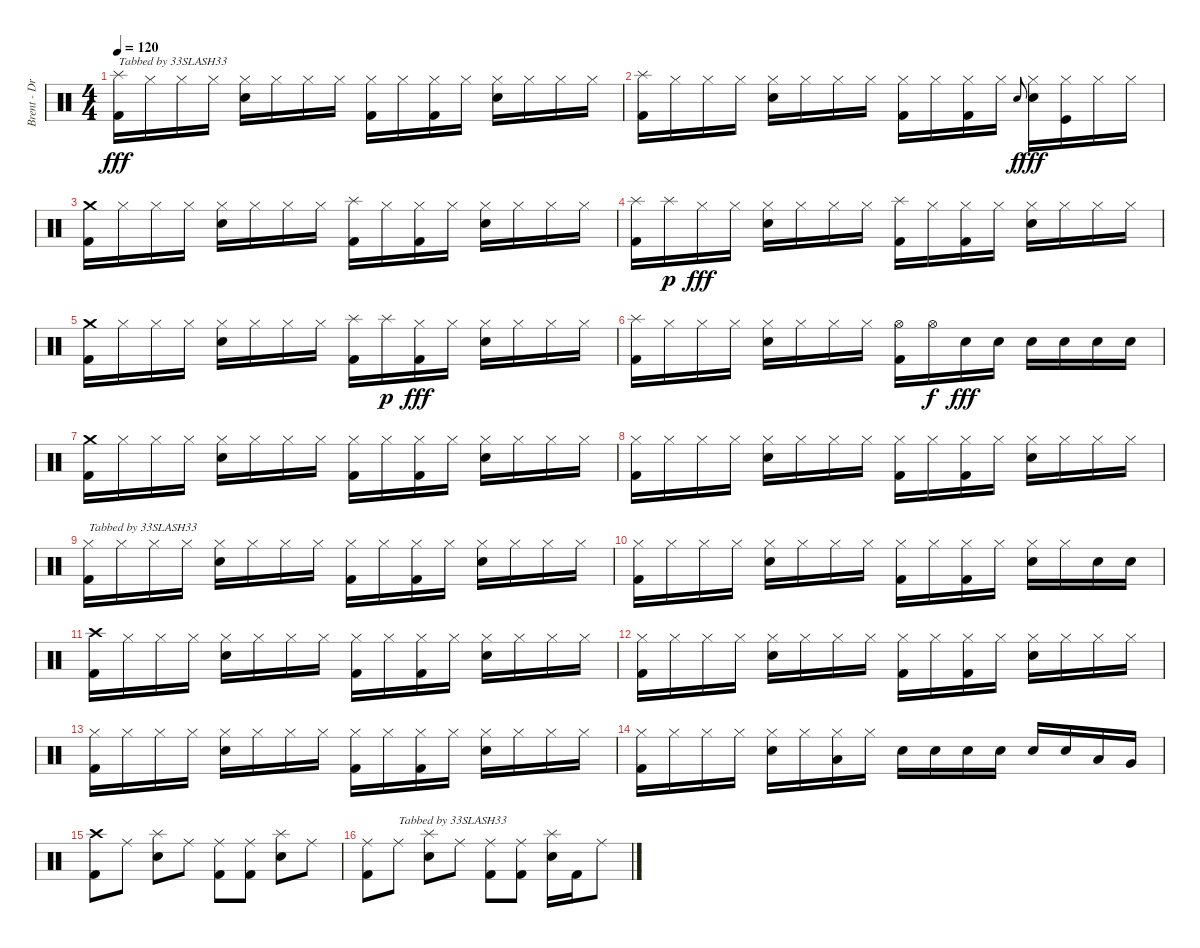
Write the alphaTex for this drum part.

\track ("Brent - Drums" "Brent - Dr") {instrument percussion}
\staff {score}
\articulation defaults
\ts (4 4)
\tempo 120
\clef neutral
\ks c
("Splash (hit)" "Kick (hit) 2").16{txt "Tabbed by 33SLASH33" dy fff} "Hi-Hat (closed)".16 "Hi-Hat (closed)".16 "Hi-Hat (closed)".16 ("Hi-Hat (closed)" "Snare (hit) 2").16 "Hi-Hat (closed)".16 "Hi-Hat (closed)".16 "Hi-Hat (closed)".16 ("Hi-Hat (closed)" "Kick (hit) 2").16 "Hi-Hat (closed)".16 ("Hi-Hat (closed)" "Kick (hit) 2").16 "Hi-Hat (closed)".16 ("Hi-Hat (closed)" "Snare (hit) 2").16 "Hi-Hat (closed)".16 "Hi-Hat (closed)".16 "Hi-Hat (closed)".16 |
("Splash (hit)" "Kick (hit) 2").16 "Hi-Hat (closed)".16 "Hi-Hat (closed)".16 "Hi-Hat (closed)".16 ("Hi-Hat (closed)" "Snare (hit) 2").16 "Hi-Hat (closed)".16 "Hi-Hat (closed)".16 "Hi-Hat (closed)".16 ("Hi-Hat (closed)" "Kick (hit) 2").16 "Hi-Hat (closed)".16 ("Hi-Hat (closed)" "Kick (hit) 2").16 "Hi-Hat (closed)".16 "Snare (hit) 2".8{gr onbeat dy f} ("Hi-Hat (closed)" "Snare (hit) 2").16{dy fff} ("Hi-Hat (closed)" "Kick (hit)").16 "Hi-Hat (closed)".16 "Hi-Hat (closed)".16 |
("Crash medium (hit)" "Kick (hit) 2").16 "Hi-Hat (closed)".16 "Hi-Hat (closed)".16 "Hi-Hat (closed)".16 ("Hi-Hat (closed)" "Snare (hit) 2").16 "Hi-Hat (closed)".16 "Hi-Hat (closed)".16 "Hi-Hat (closed)".16 ("Splash (hit)" "Kick (hit) 2").16 "Hi-Hat (closed)".16 ("Hi-Hat (closed)" "Kick (hit) 2").16 "Hi-Hat (closed)".16 ("Hi-Hat (closed)" "Snare (hit) 2").16 "Hi-Hat (closed)".16 "Hi-Hat (closed)".16 "Hi-Hat (closed)".16 |
("Splash (hit)" "Kick (hit) 2").16 "Splash (hit)".16{dy p} "Hi-Hat (closed)".16{dy fff} "Hi-Hat (closed)".16 ("Hi-Hat (closed)" "Snare (hit) 2").16 "Hi-Hat (closed)".16 "Hi-Hat (closed)".16 "Hi-Hat (closed)".16 ("Splash (hit)" "Kick (hit) 2").16 "Hi-Hat (closed)".16 ("Hi-Hat (closed)" "Kick (hit) 2").16 "Hi-Hat (closed)".16 ("Hi-Hat (closed)" "Snare (hit) 2").16 "Hi-Hat (closed)".16 "Hi-Hat (closed)".16 "Hi-Hat (closed)".16 |
("Crash medium (hit)" "Kick (hit) 2").16 "Hi-Hat (closed)".16 "Hi-Hat (closed)".16 "Hi-Hat (closed)".16 ("Hi-Hat (closed)" "Snare (hit) 2").16 "Hi-Hat (closed)".16 "Hi-Hat (closed)".16 "Hi-Hat (closed)".16 ("Splash (hit)" "Kick (hit) 2").16 "Splash (hit)".16{dy p} ("Hi-Hat (closed)" "Kick (hit) 2").16{dy fff} "Hi-Hat (closed)".16 ("Hi-Hat (closed)" "Snare (hit) 2").16 "Hi-Hat (closed)".16 "Hi-Hat (closed)".16 "Hi-Hat (closed)".16 |
("Splash (hit)" "Kick (hit) 2").16 "Hi-Hat (closed)".16 "Hi-Hat (closed)".16 "Hi-Hat (closed)".16 ("Hi-Hat (closed)" "Snare (hit) 2").16 "Hi-Hat (closed)".16 "Hi-Hat (closed)".16 "Hi-Hat (closed)".16 ("Hi-Hat (open)" "Kick (hit) 2").16 "Hi-Hat (open)".16{dy f} "Snare (hit) 2".16{dy fff} "Snare (hit) 2".16 "Snare (hit) 2".16 "Snare (hit) 2".16 "Snare (hit) 2".16 "Snare (hit) 2".16 |
("Crash medium (hit)" "Kick (hit) 2").16 "Hi-Hat (closed)".16 "Hi-Hat (closed)".16 "Hi-Hat (closed)".16 ("Hi-Hat (closed)" "Snare (hit) 2").16 "Hi-Hat (closed)".16 "Hi-Hat (closed)".16 "Hi-Hat (closed)".16 ("Hi-Hat (closed)" "Kick (hit) 2").16 "Hi-Hat (closed)".16 ("Hi-Hat (closed)" "Kick (hit) 2").16 "Hi-Hat (closed)".16 ("Hi-Hat (closed)" "Snare (hit) 2").16 "Hi-Hat (closed)".16 "Hi-Hat (closed)".16 "Hi-Hat (closed)".16 |
("Hi-Hat (closed)" "Kick (hit) 2").16 "Hi-Hat (closed)".16 "Hi-Hat (closed)".16 "Hi-Hat (closed)".16 ("Hi-Hat (closed)" "Snare (hit) 2").16 "Hi-Hat (closed)".16 "Hi-Hat (closed)".16 "Hi-Hat (closed)".16 ("Hi-Hat (closed)" "Kick (hit) 2").16 "Hi-Hat (closed)".16 ("Hi-Hat (closed)" "Kick (hit) 2").16 "Hi-Hat (closed)".16 ("Hi-Hat (closed)" "Snare (hit) 2").16 "Hi-Hat (closed)".16 "Hi-Hat (closed)".16 "Hi-Hat (closed)".16 |
("Hi-Hat (closed)" "Kick (hit) 2").16{txt "Tabbed by 33SLASH33"} "Hi-Hat (closed)".16 "Hi-Hat (closed)".16 "Hi-Hat (closed)".16 ("Hi-Hat (closed)" "Snare (hit) 2").16 "Hi-Hat (closed)".16 "Hi-Hat (closed)".16 "Hi-Hat (closed)".16 ("Hi-Hat (closed)" "Kick (hit) 2").16 "Hi-Hat (closed)".16 ("Hi-Hat (closed)" "Kick (hit) 2").16 "Hi-Hat (closed)".16 ("Hi-Hat (closed)" "Snare (hit) 2").16 "Hi-Hat (closed)".16 "Hi-Hat (closed)".16 "Hi-Hat (closed)".16 |
("Hi-Hat (closed)" "Kick (hit) 2").16 "Hi-Hat (closed)".16 "Hi-Hat (closed)".16 "Hi-Hat (closed)".16 ("Hi-Hat (closed)" "Snare (hit) 2").16 "Hi-Hat (closed)".16 "Hi-Hat (closed)".16 "Hi-Hat (closed)".16 ("Hi-Hat (closed)" "Kick (hit) 2").16 "Hi-Hat (closed)".16 ("Hi-Hat (closed)" "Kick (hit) 2").16 "Hi-Hat (closed)".16 ("Hi-Hat (closed)" "Snare (hit) 2").16 "Hi-Hat (closed)".16 "Snare (hit) 2".16 "Snare (hit) 2".16 |
("Crash high (hit)" "Kick (hit) 2").16 "Hi-Hat (closed)".16 "Hi-Hat (closed)".16 "Hi-Hat (closed)".16 ("Hi-Hat (closed)" "Snare (hit) 2").16 "Hi-Hat (closed)".16 "Hi-Hat (closed)".16 "Hi-Hat (closed)".16 ("Hi-Hat (closed)" "Kick (hit) 2").16 "Hi-Hat (closed)".16 ("Hi-Hat (closed)" "Kick (hit) 2").16 "Hi-Hat (closed)".16 ("Hi-Hat (closed)" "Snare (hit) 2").16 "Hi-Hat (closed)".16 "Hi-Hat (closed)".16 "Hi-Hat (closed)".16 |
("Hi-Hat (closed)" "Kick (hit) 2").16 "Hi-Hat (closed)".16 "Hi-Hat (closed)".16 "Hi-Hat (closed)".16 ("Hi-Hat (closed)" "Snare (hit) 2").16 "Hi-Hat (closed)".16 "Hi-Hat (closed)".16 "Hi-Hat (closed)".16 ("Hi-Hat (closed)" "Kick (hit) 2").16 "Hi-Hat (closed)".16 ("Hi-Hat (closed)" "Kick (hit) 2").16 "Hi-Hat (closed)".16 ("Hi-Hat (closed)" "Snare (hit) 2").16 "Hi-Hat (closed)".16 "Hi-Hat (closed)".16 "Hi-Hat (closed)".16 |
("Hi-Hat (closed)" "Kick (hit) 2").16 "Hi-Hat (closed)".16 "Hi-Hat (closed)".16 "Hi-Hat (closed)".16 ("Hi-Hat (closed)" "Snare (hit) 2").16 "Hi-Hat (closed)".16 "Hi-Hat (closed)".16 "Hi-Hat (closed)".16 ("Hi-Hat (closed)" "Kick (hit) 2").16 "Hi-Hat (closed)".16 ("Hi-Hat (closed)" "Kick (hit) 2").16 "Hi-Hat (closed)".16 ("Hi-Hat (closed)" "Snare (hit) 2").16 "Hi-Hat (closed)".16 "Hi-Hat (closed)".16 "Hi-Hat (closed)".16 |
("Hi-Hat (closed)" "Kick (hit) 2").16 "Hi-Hat (closed)".16 "Hi-Hat (closed)".16 "Hi-Hat (closed)".16 ("Hi-Hat (closed)" "Snare (hit) 2").16 "Hi-Hat (closed)".16 ("Hi-Hat (closed)" "Low Tom (hit)").16 "Hi-Hat (closed)".16 "Snare (hit) 2".16 "Snare (hit) 2".16 "Snare (hit) 2".16 "Snare (hit) 2".16 "Snare (hit) 2".16 "Snare (hit) 2".16 "Low Tom (hit)".16 "Very Low Tom (hit)".16 |
("Crash high (hit)" "Kick (hit) 2").8 "Ride (middle)".8 ("Splash (hit)" "Snare (hit) 2").8 "Ride (middle)".8 ("Ride (middle)" "Kick (hit) 2").8 ("Ride (middle)" "Kick (hit) 2").8 ("Splash (hit)" "Snare (hit) 2").8 "Ride (middle)".8 |
("Ride (middle)" "Kick (hit) 2").8 "Ride (middle)".8{txt "Tabbed by 33SLASH33"} ("Splash (hit)" "Snare (hit) 2").8 "Ride (middle)".8 ("Ride (middle)" "Kick (hit) 2").8 ("Ride (middle)" "Kick (hit) 2").8 ("Splash (hit)" "Snare (hit) 2").16 "Kick (hit) 2".16 "Ride (middle)".8
